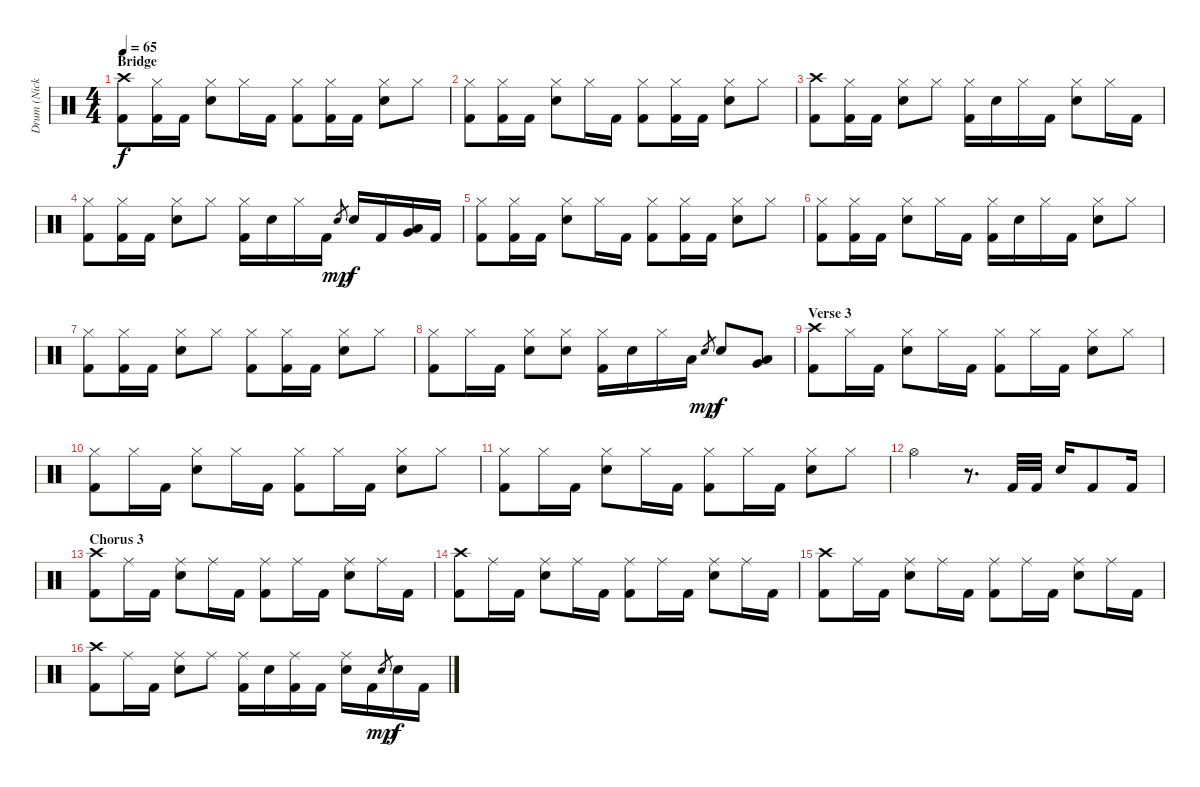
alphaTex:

\track ("Drum (Nick Oshiro)" "Drum (Nick") {instrument percussion}
\staff {score}
\articulation defaults
\ts (4 4)
\section ("" "Bridge")
\tempo 65
\clef neutral
\ks c
("Crash high (hit)" "Kick (hit) 2").8{dy f} ("Hi-Hat (closed)" "Kick (hit) 2").16 "Kick (hit) 2".16 ("Hi-Hat (closed)" "Electric Snare (hit)").8 "Hi-Hat (closed)".16 "Kick (hit) 2".16 ("Hi-Hat (closed)" "Kick (hit) 2").8 ("Hi-Hat (closed)" "Kick (hit) 2").16 "Kick (hit) 2".16 ("Hi-Hat (closed)" "Electric Snare (hit)").8 "Hi-Hat (closed)".8 |
("Hi-Hat (closed)" "Kick (hit) 2").8 ("Hi-Hat (closed)" "Kick (hit) 2").16 "Kick (hit) 2".16 ("Hi-Hat (closed)" "Electric Snare (hit)").8 "Hi-Hat (closed)".16 "Kick (hit) 2".16 ("Hi-Hat (closed)" "Kick (hit) 2").8 ("Hi-Hat (closed)" "Kick (hit) 2").16 "Kick (hit) 2".16 ("Hi-Hat (closed)" "Electric Snare (hit)").8 "Hi-Hat (closed)".8 |
("Crash high (hit)" "Kick (hit) 2").8 ("Hi-Hat (closed)" "Kick (hit) 2").16 "Kick (hit) 2".16 ("Hi-Hat (closed)" "Electric Snare (hit)").8 "Hi-Hat (closed)".8 ("Hi-Hat (closed)" "Kick (hit) 2").16 "Electric Snare (hit)".16 "Hi-Hat (closed)".16 "Kick (hit) 2".16 ("Hi-Hat (closed)" "Electric Snare (hit)").8 "Hi-Hat (closed)".16 "Kick (hit) 2".16 |
("Hi-Hat (closed)" "Kick (hit) 2").8 ("Hi-Hat (closed)" "Kick (hit) 2").16 "Kick (hit) 2".16 ("Hi-Hat (closed)" "Electric Snare (hit)").8 "Hi-Hat (closed)".8 ("Hi-Hat (closed)" "Kick (hit) 2").16 "Electric Snare (hit)".16 "Hi-Hat (closed)".16 "Kick (hit) 2".16 "Electric Snare (hit)".8{gr dy mp} "Electric Snare (hit)".16{dy f} "Kick (hit) 2".16 ("Very Low Tom (hit)" "Low Tom (hit)").16 "Kick (hit) 2".16 |
("Hi-Hat (closed)" "Kick (hit) 2").8 ("Hi-Hat (closed)" "Kick (hit) 2").16 "Kick (hit) 2".16 ("Hi-Hat (closed)" "Electric Snare (hit)").8 "Hi-Hat (closed)".16 "Kick (hit) 2".16 ("Hi-Hat (closed)" "Kick (hit) 2").8 ("Hi-Hat (closed)" "Kick (hit) 2").16 "Kick (hit) 2".16 ("Hi-Hat (closed)" "Electric Snare (hit)").8 "Hi-Hat (closed)".8 |
("Hi-Hat (closed)" "Kick (hit) 2").8 ("Hi-Hat (closed)" "Kick (hit) 2").16 "Kick (hit) 2".16 ("Hi-Hat (closed)" "Electric Snare (hit)").8 "Hi-Hat (closed)".16 "Kick (hit) 2".16 ("Hi-Hat (closed)" "Kick (hit) 2").16 "Electric Snare (hit)".16 "Hi-Hat (closed)".16 "Kick (hit) 2".16 ("Hi-Hat (closed)" "Electric Snare (hit)").8 "Hi-Hat (closed)".8 |
("Hi-Hat (closed)" "Kick (hit) 2").8 ("Hi-Hat (closed)" "Kick (hit) 2").16 "Kick (hit) 2".16 ("Hi-Hat (closed)" "Electric Snare (hit)").8 "Hi-Hat (closed)".8 ("Hi-Hat (closed)" "Kick (hit) 2").8 ("Hi-Hat (closed)" "Kick (hit) 2").16 "Kick (hit) 2".16 ("Hi-Hat (closed)" "Electric Snare (hit)").8 "Hi-Hat (closed)".8 |
("Hi-Hat (closed)" "Kick (hit) 2").8 "Hi-Hat (closed)".16 "Kick (hit) 2".16 ("Hi-Hat (closed)" "Electric Snare (hit)").8 ("Hi-Hat (closed)" "Electric Snare (hit)").8 ("Hi-Hat (closed)" "Kick (hit) 2").16 "Electric Snare (hit)".16 "Hi-Hat (closed)".16 "Low Tom (hit)".16 "Electric Snare (hit)".8{gr dy mp} "Electric Snare (hit)".8{dy f} ("Very Low Tom (hit)" "Low Tom (hit)").8 |
\section ("" "Verse 3")
("Crash high (hit)" "Kick (hit) 2").8 "Hi-Hat (closed)".16 "Kick (hit) 2".16 ("Hi-Hat (closed)" "Electric Snare (hit)").8 "Hi-Hat (closed)".16 "Kick (hit) 2".16 ("Hi-Hat (closed)" "Kick (hit) 2").8 "Hi-Hat (closed)".16 "Kick (hit) 2".16 ("Hi-Hat (closed)" "Electric Snare (hit)").8 "Hi-Hat (closed)".8 |
("Hi-Hat (closed)" "Kick (hit) 2").8 "Hi-Hat (closed)".16 "Kick (hit) 2".16 ("Hi-Hat (closed)" "Electric Snare (hit)").8 "Hi-Hat (closed)".16 "Kick (hit) 2".16 ("Hi-Hat (closed)" "Kick (hit) 2").8 "Hi-Hat (closed)".16 "Kick (hit) 2".16 ("Hi-Hat (closed)" "Electric Snare (hit)").8 "Hi-Hat (closed)".8 |
("Hi-Hat (closed)" "Kick (hit) 2").8 "Hi-Hat (closed)".16 "Kick (hit) 2".16 ("Hi-Hat (closed)" "Electric Snare (hit)").8 "Hi-Hat (closed)".16 "Kick (hit) 2".16 ("Hi-Hat (closed)" "Kick (hit) 2").8 "Hi-Hat (closed)".16 "Kick (hit) 2".16 ("Hi-Hat (closed)" "Electric Snare (hit)").8 "Hi-Hat (closed)".8 |
"Hi-Hat (open)".2 r.8{d} "Kick (hit) 2".32 "Kick (hit) 2".32 "Electric Snare (hit)".16 "Kick (hit) 2".8 "Kick (hit) 2".16 |
\section ("" "Chorus 3")
("Crash high (hit)" "Kick (hit) 2").8 "Ride (middle)".16 "Kick (hit) 2".16 ("Ride (middle)" "Electric Snare (hit)").8 "Ride (middle)".16 "Kick (hit) 2".16 ("Ride (middle)" "Kick (hit) 2").8 "Ride (middle)".16 "Kick (hit) 2".16 ("Ride (middle)" "Electric Snare (hit)").8 "Ride (middle)".16 "Kick (hit) 2".16 |
("Crash high (hit)" "Kick (hit) 2").8 "Ride (middle)".16 "Kick (hit) 2".16 ("Ride (middle)" "Electric Snare (hit)").8 "Ride (middle)".16 "Kick (hit) 2".16 ("Ride (middle)" "Kick (hit) 2").8 "Ride (middle)".16 "Kick (hit) 2".16 ("Ride (middle)" "Electric Snare (hit)").8 "Ride (middle)".16 "Kick (hit) 2".16 |
("Crash high (hit)" "Kick (hit) 2").8 "Ride (middle)".16 "Kick (hit) 2".16 ("Ride (middle)" "Electric Snare (hit)").8 "Ride (middle)".16 "Kick (hit) 2".16 ("Ride (middle)" "Kick (hit) 2").8 "Ride (middle)".16 "Kick (hit) 2".16 ("Ride (middle)" "Electric Snare (hit)").8 "Ride (middle)".16 "Kick (hit) 2".16 |
("Crash high (hit)" "Kick (hit) 2").8 "Ride (middle)".16 "Kick (hit) 2".16 ("Ride (middle)" "Electric Snare (hit)").8 "Ride (middle)".8 ("Ride (middle)" "Kick (hit) 2").16 "Electric Snare (hit)".16 ("Ride (middle)" "Kick (hit) 2").16 "Kick (hit) 2".16 ("Ride (middle)" "Electric Snare (hit)").16 "Kick (hit) 2".16 "Electric Snare (hit)".8{gr dy mp} "Electric Snare (hit)".16{dy f} "Kick (hit) 2".16
